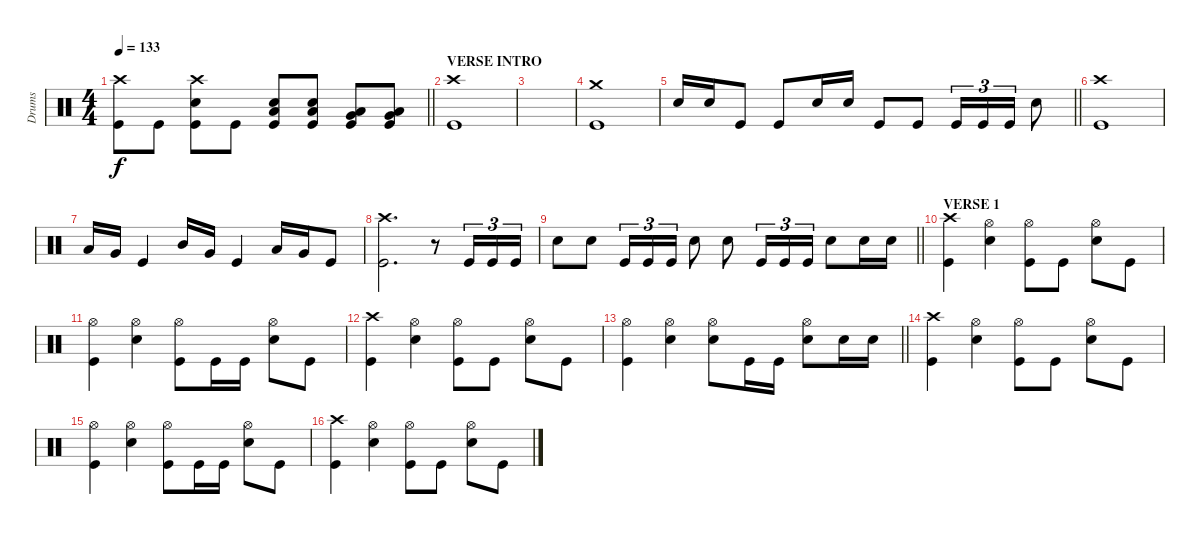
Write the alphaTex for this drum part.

\track ("Drums" "Drums") {instrument percussion}
\staff
\articulation defaults
\ts (4 4)
\tempo 133
\clef neutral
\barLineRight lightlight
\ks c
("Crash high (hit)" "Kick (hit)").8{dy f} "Kick (hit)".8 ("Crash high (hit)" "Electric Snare (hit)" "Kick (hit)").8 "Kick (hit)".8 ("Low Floor Tom (hit)" "Electric Snare (hit)" "Kick (hit)").8 ("Low Floor Tom (hit)" "Electric Snare (hit)" "Kick (hit)").8 ("Very Low Tom (hit)" "Low Floor Tom (hit)" "Kick (hit)").8 ("Very Low Tom (hit)" "Low Floor Tom (hit)" "Kick (hit)").8 |
\section ("" "VERSE INTRO")
("Crash high (hit)" "Kick (hit)").1 |
|
("Crash medium (hit)" "Kick (hit)").1 |
\barLineRight lightlight "Electric Snare (hit)".16 "Electric Snare (hit)".16 "Kick (hit)".8 "Kick (hit)".8 "Electric Snare (hit)".16 "Electric Snare (hit)".16 "Kick (hit)".8 "Kick (hit)".8 "Kick (hit)".16{tu (3 2)} "Kick (hit)".16{tu (3 2)} "Kick (hit)".16{tu (3 2)} "Electric Snare (hit)".8
|
("Crash high (hit)" "Kick (hit)").1 |
"Low Tom (hit)".16 "Very Low Tom (hit)".16 "Kick (hit)".4 "Mid Tom (hit)".16 "Very Low Tom (hit)".16 "Kick (hit)".4 "Low Tom (hit)".16 "Very Low Tom (hit)".16 "Kick (hit)".8 |
("Crash high (hit)" "Kick (hit)").2{d} r.8 "Kick (hit)".16{tu (3 2)} "Kick (hit)".16{tu (3 2)} "Kick (hit)".16{tu (3 2)} |
\barLineRight lightlight "Electric Snare (hit)".8 "Electric Snare (hit)".8 "Kick (hit)".16{tu (3 2)} "Kick (hit)".16{tu (3 2)} "Kick (hit)".16{tu (3 2)} "Electric Snare (hit)".8 "Electric Snare (hit)".8 "Kick (hit)".16{tu (3 2)} "Kick (hit)".16{tu (3 2)} "Kick (hit)".16{tu (3 2)} "Electric Snare (hit)".8 "Electric Snare (hit)".16 "Electric Snare (hit)".16
|
\section ("" "VERSE 1")
("Crash high (hit)" "Kick (hit)").4 ("Hi-Hat (open)" "Electric Snare (hit)").4 ("Hi-Hat (open)" "Kick (hit)").8 "Kick (hit)".8 ("Hi-Hat (open)" "Electric Snare (hit)").8 "Kick (hit)".8 |
("Hi-Hat (open)" "Kick (hit)").4 ("Hi-Hat (open)" "Electric Snare (hit)").4 ("Hi-Hat (open)" "Kick (hit)").8 "Kick (hit)".16 "Kick (hit)".16 ("Hi-Hat (open)" "Electric Snare (hit)").8 "Kick (hit)".8 |
("Crash high (hit)" "Kick (hit)").4 ("Hi-Hat (open)" "Electric Snare (hit)").4 ("Hi-Hat (open)" "Kick (hit)").8 "Kick (hit)".8 ("Hi-Hat (open)" "Electric Snare (hit)").8 "Kick (hit)".8 |
\barLineRight lightlight
("Hi-Hat (open)" "Kick (hit)").4 ("Hi-Hat (open)" "Electric Snare (hit)").4 ("Hi-Hat (open)" "Electric Snare (hit)").8 "Kick (hit)".16 "Kick (hit)".16 ("Hi-Hat (open)" "Electric Snare (hit)").8 "Electric Snare (hit)".16 "Electric Snare (hit)".16 |
("Crash high (hit)" "Kick (hit)").4 ("Hi-Hat (open)" "Electric Snare (hit)").4 ("Hi-Hat (open)" "Kick (hit)").8 "Kick (hit)".8 ("Hi-Hat (open)" "Electric Snare (hit)").8 "Kick (hit)".8 |
("Hi-Hat (open)" "Kick (hit)").4 ("Hi-Hat (open)" "Electric Snare (hit)").4 ("Hi-Hat (open)" "Kick (hit)").8 "Kick (hit)".16 "Kick (hit)".16 ("Hi-Hat (open)" "Electric Snare (hit)").8 "Kick (hit)".8 |
("Crash high (hit)" "Kick (hit)").4 ("Hi-Hat (open)" "Electric Snare (hit)").4 ("Hi-Hat (open)" "Kick (hit)").8 "Kick (hit)".8 ("Hi-Hat (open)" "Electric Snare (hit)").8 "Kick (hit)".8
